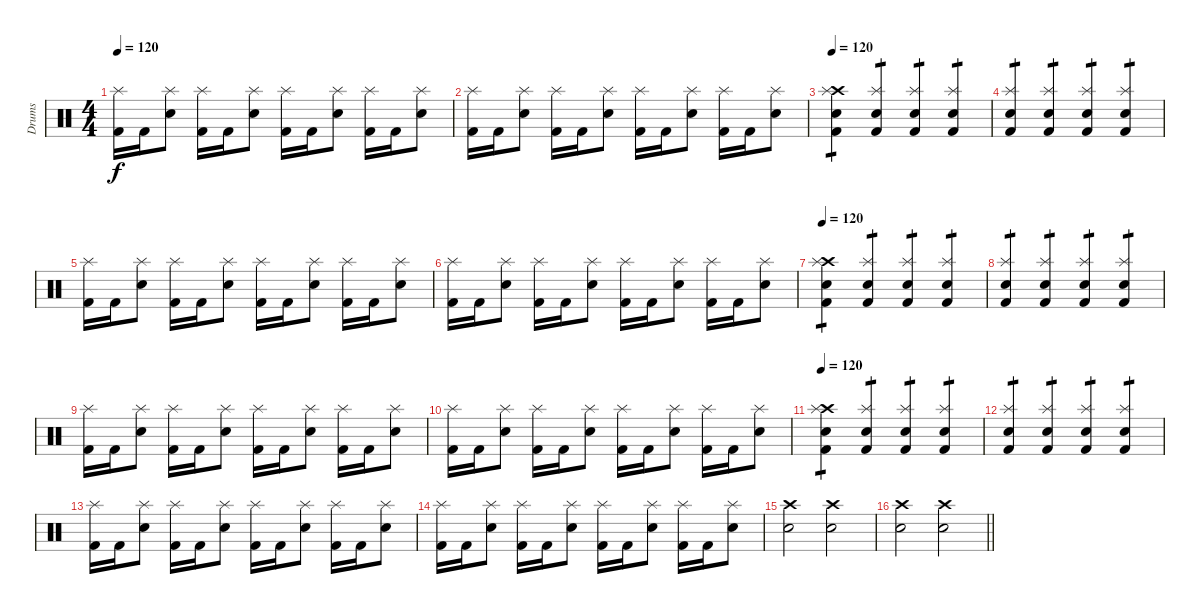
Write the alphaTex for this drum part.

\track ("Drums" "Drums") {instrument percussion}
\staff {score}
\articulation defaults
\ts (4 4)
\tempo 120
\clef neutral
\ks c
("Kick (hit) 2" "Splash (hit)").16{dy f} "Kick (hit) 2".16 ("Electric Snare (hit)" "Splash (hit)").8 ("Kick (hit) 2" "Splash (hit)").16 "Kick (hit) 2".16 ("Electric Snare (hit)" "Splash (hit)").8 ("Kick (hit) 2" "Splash (hit)").16 "Kick (hit) 2".16 ("Electric Snare (hit)" "Splash (hit)").8 ("Kick (hit) 2" "Splash (hit)").16 "Kick (hit) 2".16 ("Electric Snare (hit)" "Splash (hit)").8 |
("Kick (hit) 2" "Splash (hit)").16 "Kick (hit) 2".16 ("Electric Snare (hit)" "Splash (hit)").8 ("Kick (hit) 2" "Splash (hit)").16 "Kick (hit) 2".16 ("Electric Snare (hit)" "Splash (hit)").8 ("Kick (hit) 2" "Splash (hit)").16 "Kick (hit) 2".16 ("Electric Snare (hit)" "Splash (hit)").8 ("Kick (hit) 2" "Splash (hit)").16 "Kick (hit) 2".16 ("Electric Snare (hit)" "Splash (hit)").8 |
\tempo 120
("Kick (hit) 2" "Electric Snare (hit)" "Crash high (hit)" "Splash (hit)").4{tp 1} ("Kick (hit) 2" "Electric Snare (hit)" "Splash (hit)").4{tp 1} ("Kick (hit) 2" "Electric Snare (hit)" "Splash (hit)").4{tp 1} ("Kick (hit) 2" "Electric Snare (hit)" "Splash (hit)").4{tp 1} |
("Kick (hit) 2" "Electric Snare (hit)" "Splash (hit)").4{tp 1} ("Kick (hit) 2" "Electric Snare (hit)" "Splash (hit)").4{tp 1} ("Kick (hit) 2" "Electric Snare (hit)" "Splash (hit)").4{tp 1} ("Kick (hit) 2" "Electric Snare (hit)" "Splash (hit)").4{tp 1} |
("Kick (hit) 2" "Splash (hit)").16 "Kick (hit) 2".16 ("Electric Snare (hit)" "Splash (hit)").8 ("Kick (hit) 2" "Splash (hit)").16 "Kick (hit) 2".16 ("Electric Snare (hit)" "Splash (hit)").8 ("Kick (hit) 2" "Splash (hit)").16 "Kick (hit) 2".16 ("Electric Snare (hit)" "Splash (hit)").8 ("Kick (hit) 2" "Splash (hit)").16 "Kick (hit) 2".16 ("Electric Snare (hit)" "Splash (hit)").8 |
("Kick (hit) 2" "Splash (hit)").16 "Kick (hit) 2".16 ("Electric Snare (hit)" "Splash (hit)").8 ("Kick (hit) 2" "Splash (hit)").16 "Kick (hit) 2".16 ("Electric Snare (hit)" "Splash (hit)").8 ("Kick (hit) 2" "Splash (hit)").16 "Kick (hit) 2".16 ("Electric Snare (hit)" "Splash (hit)").8 ("Kick (hit) 2" "Splash (hit)").16 "Kick (hit) 2".16 ("Electric Snare (hit)" "Splash (hit)").8 |
\tempo 120
("Kick (hit) 2" "Electric Snare (hit)" "Crash high (hit)" "Splash (hit)").4{tp 1} ("Kick (hit) 2" "Electric Snare (hit)" "Splash (hit)").4{tp 1} ("Kick (hit) 2" "Electric Snare (hit)" "Splash (hit)").4{tp 1} ("Kick (hit) 2" "Electric Snare (hit)" "Splash (hit)").4{tp 1} |
("Kick (hit) 2" "Electric Snare (hit)" "Splash (hit)").4{tp 1} ("Kick (hit) 2" "Electric Snare (hit)" "Splash (hit)").4{tp 1} ("Kick (hit) 2" "Electric Snare (hit)" "Splash (hit)").4{tp 1} ("Kick (hit) 2" "Electric Snare (hit)" "Splash (hit)").4{tp 1} |
("Kick (hit) 2" "Splash (hit)").16 "Kick (hit) 2".16 ("Electric Snare (hit)" "Splash (hit)").8 ("Kick (hit) 2" "Splash (hit)").16 "Kick (hit) 2".16 ("Electric Snare (hit)" "Splash (hit)").8 ("Kick (hit) 2" "Splash (hit)").16 "Kick (hit) 2".16 ("Electric Snare (hit)" "Splash (hit)").8 ("Kick (hit) 2" "Splash (hit)").16 "Kick (hit) 2".16 ("Electric Snare (hit)" "Splash (hit)").8 |
("Kick (hit) 2" "Splash (hit)").16 "Kick (hit) 2".16 ("Electric Snare (hit)" "Splash (hit)").8 ("Kick (hit) 2" "Splash (hit)").16 "Kick (hit) 2".16 ("Electric Snare (hit)" "Splash (hit)").8 ("Kick (hit) 2" "Splash (hit)").16 "Kick (hit) 2".16 ("Electric Snare (hit)" "Splash (hit)").8 ("Kick (hit) 2" "Splash (hit)").16 "Kick (hit) 2".16 ("Electric Snare (hit)" "Splash (hit)").8 |
\tempo 120
("Kick (hit) 2" "Electric Snare (hit)" "Crash high (hit)" "Splash (hit)").4{tp 1} ("Kick (hit) 2" "Electric Snare (hit)" "Splash (hit)").4{tp 1} ("Kick (hit) 2" "Electric Snare (hit)" "Splash (hit)").4{tp 1} ("Kick (hit) 2" "Electric Snare (hit)" "Splash (hit)").4{tp 1} |
("Kick (hit) 2" "Electric Snare (hit)" "Splash (hit)").4{tp 1} ("Kick (hit) 2" "Electric Snare (hit)" "Splash (hit)").4{tp 1} ("Kick (hit) 2" "Electric Snare (hit)" "Splash (hit)").4{tp 1} ("Kick (hit) 2" "Electric Snare (hit)" "Splash (hit)").4{tp 1} |
("Kick (hit) 2" "Splash (hit)").16 "Kick (hit) 2".16 ("Electric Snare (hit)" "Splash (hit)").8 ("Kick (hit) 2" "Splash (hit)").16 "Kick (hit) 2".16 ("Electric Snare (hit)" "Splash (hit)").8 ("Kick (hit) 2" "Splash (hit)").16 "Kick (hit) 2".16 ("Electric Snare (hit)" "Splash (hit)").8 ("Kick (hit) 2" "Splash (hit)").16 "Kick (hit) 2".16 ("Electric Snare (hit)" "Splash (hit)").8 |
("Kick (hit) 2" "Splash (hit)").16 "Kick (hit) 2".16 ("Electric Snare (hit)" "Splash (hit)").8 ("Kick (hit) 2" "Splash (hit)").16 "Kick (hit) 2".16 ("Electric Snare (hit)" "Splash (hit)").8 ("Kick (hit) 2" "Splash (hit)").16 "Kick (hit) 2".16 ("Electric Snare (hit)" "Splash (hit)").8 ("Kick (hit) 2" "Splash (hit)").16 "Kick (hit) 2".16 ("Electric Snare (hit)" "Splash (hit)").8 |
("Electric Snare (hit)" "Crash high (hit)").2 ("Electric Snare (hit)" "Crash high (hit)").2 |
\barLineRight lightlight
("Electric Snare (hit)" "Crash high (hit)").2 ("Electric Snare (hit)" "Crash high (hit)").2
